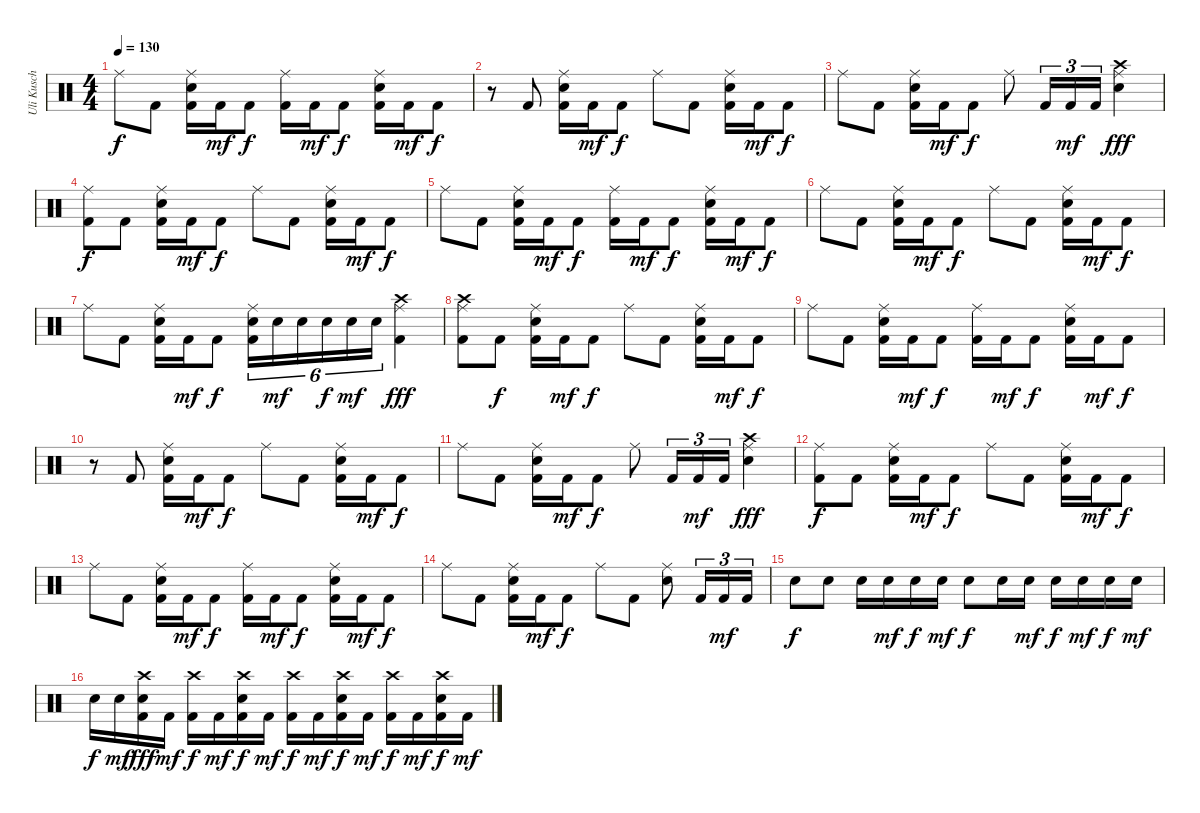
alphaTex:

\track ("Uli Kusch" "Uli Kusch") {instrument percussion}
\staff {score}
\articulation defaults
\ts (4 4)
\tempo 130
\clef neutral
\ks c "Ride (middle)".8{dy f} "Kick (hit) 2".8
("Kick (hit) 2" "Electric Snare (hit)" "Ride (middle)").16 "Kick (hit) 2".16{dy mf} "Kick (hit) 2".8{dy f} ("Kick (hit) 2" "Ride (middle)").16 "Kick (hit) 2".16{dy mf} "Kick (hit) 2".8{dy f} ("Kick (hit) 2" "Electric Snare (hit)" "Ride (middle)").16 "Kick (hit) 2".16{dy mf} "Kick (hit) 2".8{dy f} |
r.8 "Kick (hit) 2".8 ("Ride (middle)" "Electric Snare (hit)" "Kick (hit) 2").16 "Kick (hit) 2".16{dy mf} "Kick (hit) 2".8{dy f} "Ride (middle)".8 "Kick (hit) 2".8 ("Ride (middle)" "Electric Snare (hit)" "Kick (hit) 2").16 "Kick (hit) 2".16{dy mf} "Kick (hit) 2".8{dy f} |
"Ride (middle)".8 "Kick (hit) 2".8 ("Ride (middle)" "Electric Snare (hit)" "Kick (hit) 2").16 "Kick (hit) 2".16{dy mf} "Kick (hit) 2".8{dy f} "Ride (middle)".8 "Kick (hit) 2".16{tu (3 2)} "Kick (hit) 2".16{tu (3 2) dy mf} "Kick (hit) 2".16{tu (3 2)} ("Electric Snare (hit)" "Crash high (hit)" "Ride (middle)").4{dy fff} |
("Ride (middle)" "Kick (hit) 2").8{dy f} "Kick (hit) 2".8 ("Ride (middle)" "Electric Snare (hit)" "Kick (hit) 2").16 "Kick (hit) 2".16{dy mf} "Kick (hit) 2".8{dy f} "Ride (middle)".8 "Kick (hit) 2".8 ("Ride (middle)" "Electric Snare (hit)" "Kick (hit) 2").16 "Kick (hit) 2".16{dy mf} "Kick (hit) 2".8{dy f} |
"Ride (middle)".8 "Kick (hit) 2".8 ("Kick (hit) 2" "Electric Snare (hit)" "Ride (middle)").16 "Kick (hit) 2".16{dy mf} "Kick (hit) 2".8{dy f} ("Kick (hit) 2" "Ride (middle)").16 "Kick (hit) 2".16{dy mf} "Kick (hit) 2".8{dy f} ("Kick (hit) 2" "Electric Snare (hit)" "Ride (middle)").16 "Kick (hit) 2".16{dy mf} "Kick (hit) 2".8{dy f} |
"Ride (middle)".8 "Kick (hit) 2".8 ("Ride (middle)" "Electric Snare (hit)" "Kick (hit) 2").16 "Kick (hit) 2".16{dy mf} "Kick (hit) 2".8{dy f} "Ride (middle)".8 "Kick (hit) 2".8 ("Ride (middle)" "Electric Snare (hit)" "Kick (hit) 2").16 "Kick (hit) 2".16{dy mf} "Kick (hit) 2".8{dy f} |
"Ride (middle)".8 "Kick (hit) 2".8 ("Kick (hit) 2" "Electric Snare (hit)" "Ride (middle)").16 "Kick (hit) 2".16{dy mf} "Kick (hit) 2".8{dy f} ("Kick (hit) 2" "Ride (middle)" "Electric Snare (hit)").16{tu (6 4)} "Electric Snare (hit)".16{tu (6 4) dy mf} "Electric Snare (hit)".16{tu (6 4)} "Electric Snare (hit)".16{tu (6 4) dy f} "Electric Snare (hit)".16{tu (6 4) dy mf} "Electric Snare (hit)".16{tu (6 4)} ("Ride (middle)" "Crash high (hit)" "Kick (hit) 2").4{dy fff} |
("Ride (middle)" "Crash high (hit)" "Kick (hit) 2").8 "Kick (hit) 2".8{dy f} ("Kick (hit) 2" "Electric Snare (hit)" "Ride (middle)").16 "Kick (hit) 2".16{dy mf} "Kick (hit) 2".8{dy f} "Ride (middle)".8 "Kick (hit) 2".8 ("Kick (hit) 2" "Electric Snare (hit)" "Ride (middle)").16 "Kick (hit) 2".16{dy mf} "Kick (hit) 2".8{dy f} |
"Ride (middle)".8 "Kick (hit) 2".8 ("Kick (hit) 2" "Electric Snare (hit)" "Ride (middle)").16 "Kick (hit) 2".16{dy mf} "Kick (hit) 2".8{dy f} ("Kick (hit) 2" "Ride (middle)").16 "Kick (hit) 2".16{dy mf} "Kick (hit) 2".8{dy f} ("Kick (hit) 2" "Electric Snare (hit)" "Ride (middle)").16 "Kick (hit) 2".16{dy mf} "Kick (hit) 2".8{dy f} |
r.8 "Kick (hit) 2".8 ("Ride (middle)" "Electric Snare (hit)" "Kick (hit) 2").16 "Kick (hit) 2".16{dy mf} "Kick (hit) 2".8{dy f} "Ride (middle)".8 "Kick (hit) 2".8 ("Ride (middle)" "Electric Snare (hit)" "Kick (hit) 2").16 "Kick (hit) 2".16{dy mf} "Kick (hit) 2".8{dy f} |
"Ride (middle)".8 "Kick (hit) 2".8 ("Ride (middle)" "Electric Snare (hit)" "Kick (hit) 2").16 "Kick (hit) 2".16{dy mf} "Kick (hit) 2".8{dy f} "Ride (middle)".8 "Kick (hit) 2".16{tu (3 2)} "Kick (hit) 2".16{tu (3 2) dy mf} "Kick (hit) 2".16{tu (3 2)} ("Electric Snare (hit)" "Crash high (hit)" "Ride (middle)").4{dy fff} |
("Ride (middle)" "Kick (hit) 2").8{dy f} "Kick (hit) 2".8 ("Ride (middle)" "Electric Snare (hit)" "Kick (hit) 2").16 "Kick (hit) 2".16{dy mf} "Kick (hit) 2".8{dy f} "Ride (middle)".8 "Kick (hit) 2".8 ("Ride (middle)" "Electric Snare (hit)" "Kick (hit) 2").16 "Kick (hit) 2".16{dy mf} "Kick (hit) 2".8{dy f} |
"Ride (middle)".8 "Kick (hit) 2".8 ("Kick (hit) 2" "Electric Snare (hit)" "Ride (middle)").16 "Kick (hit) 2".16{dy mf} "Kick (hit) 2".8{dy f} ("Kick (hit) 2" "Ride (middle)").16 "Kick (hit) 2".16{dy mf} "Kick (hit) 2".8{dy f} ("Kick (hit) 2" "Electric Snare (hit)" "Ride (middle)").16 "Kick (hit) 2".16{dy mf} "Kick (hit) 2".8{dy f} |
"Ride (middle)".8 "Kick (hit) 2".8 ("Kick (hit) 2" "Electric Snare (hit)" "Ride (middle)").16 "Kick (hit) 2".16{dy mf} "Kick (hit) 2".8{dy f} "Ride (middle)".8 "Kick (hit) 2".8 ("Electric Snare (hit)" "Ride (middle)").8 "Kick (hit) 2".16{tu (3 2)} "Kick (hit) 2".16{tu (3 2) dy mf} "Kick (hit) 2".16{tu (3 2)} |
"Snare (hit) 2".8{dy f} "Electric Snare (hit)".8 "Snare (hit) 2".16 "Snare (hit) 2".16{dy mf} "Electric Snare (hit)".16{dy f} "Electric Snare (hit)".16{dy mf} "Electric Snare (hit)".8{dy f} "Snare (hit) 2".16 "Snare (hit) 2".16{dy mf} "Electric Snare (hit)".16{dy f} "Electric Snare (hit)".16{dy mf} "Snare (hit) 2".16{dy f} "Snare (hit) 2".16{dy mf} |
"Snare (hit) 2".16{dy f} "Snare (hit) 2".16{dy mf} ("Electric Snare (hit)" "Kick (hit) 2" "Crash high (hit)").16{dy fff} "Kick (hit) 2".16{dy mf} ("Kick (hit) 2" "Crash high (hit)").16{dy f} "Kick (hit) 2".16{dy mf} ("Kick (hit) 2" "Electric Snare (hit)" "Crash high (hit)").16{dy f} "Kick (hit) 2".16{dy mf} ("Kick (hit) 2" "Crash high (hit)").16{dy f} "Kick (hit) 2".16{dy mf} ("Kick (hit) 2" "Electric Snare (hit)" "Crash high (hit)").16{dy f} "Kick (hit) 2".16{dy mf} ("Kick (hit) 2" "Crash high (hit)").16{dy f} "Kick (hit) 2".16{dy mf} ("Kick (hit) 2" "Electric Snare (hit)" "Crash high (hit)").16{dy f} "Kick (hit) 2".16{dy mf}
